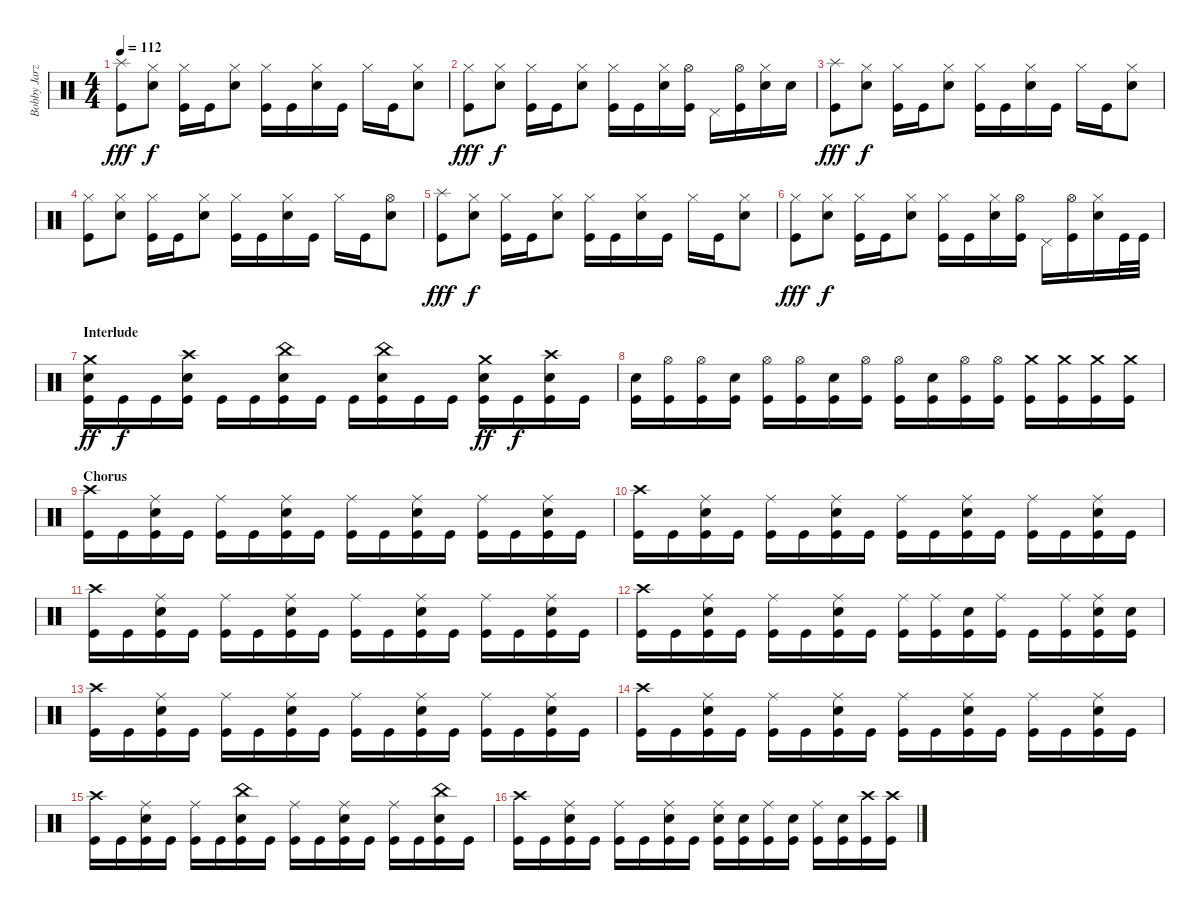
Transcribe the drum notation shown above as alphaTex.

\track ("Bobby Jarzombek" "Bobby Jarz") {instrument percussion}
\staff {score}
\articulation defaults
\ts (4 4)
\tempo 112
\clef neutral
\ks c
("Splash (hit)" "Kick (hit)").8{dy fff} ("Hi-Hat (closed)" "Electric Snare (hit)").8{dy f} ("Hi-Hat (closed)" "Kick (hit)").16 "Kick (hit)".16 ("Hi-Hat (closed)" "Electric Snare (hit)").8 ("Hi-Hat (closed)" "Kick (hit)").16 "Kick (hit)".16 ("Hi-Hat (closed)" "Electric Snare (hit)").16 "Kick (hit)".16 "Hi-Hat (closed)".16 "Kick (hit)".16 ("Hi-Hat (closed)" "Electric Snare (hit)").8 |
("Hi-Hat (closed)" "Kick (hit)").8{dy fff} ("Hi-Hat (closed)" "Electric Snare (hit)").8{dy f} ("Hi-Hat (closed)" "Kick (hit)").16 "Kick (hit)".16 ("Hi-Hat (closed)" "Electric Snare (hit)").8 ("Hi-Hat (closed)" "Kick (hit)").16 "Kick (hit)".16 ("Hi-Hat (closed)" "Electric Snare (hit)").16 ("Hi-Hat (open)" "Kick (hit)").16 "Pedal Hi-Hat (hit)".16 ("Hi-Hat (open)" "Kick (hit)").16 ("Hi-Hat (closed)" "Electric Snare (hit)").16 "Electric Snare (hit)".16 |
("Splash (hit)" "Kick (hit)").8{dy fff} ("Hi-Hat (closed)" "Electric Snare (hit)").8{dy f} ("Hi-Hat (closed)" "Kick (hit)").16 "Kick (hit)".16 ("Hi-Hat (closed)" "Electric Snare (hit)").8 ("Hi-Hat (closed)" "Kick (hit)").16 "Kick (hit)".16 ("Hi-Hat (closed)" "Electric Snare (hit)").16 "Kick (hit)".16 "Hi-Hat (closed)".16 "Kick (hit)".16 ("Hi-Hat (closed)" "Electric Snare (hit)").8 |
("Hi-Hat (closed)" "Kick (hit)").8 ("Hi-Hat (closed)" "Electric Snare (hit)").8 ("Hi-Hat (closed)" "Kick (hit)").16 "Kick (hit)".16 ("Hi-Hat (closed)" "Electric Snare (hit)").8 ("Hi-Hat (closed)" "Kick (hit)").16 "Kick (hit)".16 ("Hi-Hat (closed)" "Electric Snare (hit)").16 "Kick (hit)".16 "Hi-Hat (closed)".16 "Kick (hit)".16 ("Hi-Hat (open)" "Electric Snare (hit)").8 |
("Splash (hit)" "Kick (hit)").8{dy fff} ("Hi-Hat (closed)" "Electric Snare (hit)").8{dy f} ("Hi-Hat (closed)" "Kick (hit)").16 "Kick (hit)".16 ("Hi-Hat (closed)" "Electric Snare (hit)").8 ("Hi-Hat (closed)" "Kick (hit)").16 "Kick (hit)".16 ("Hi-Hat (closed)" "Electric Snare (hit)").16 "Kick (hit)".16 "Hi-Hat (closed)".16 "Kick (hit)".16 ("Hi-Hat (closed)" "Electric Snare (hit)").8 |
("Hi-Hat (closed)" "Kick (hit)").8{dy fff} ("Hi-Hat (closed)" "Electric Snare (hit)").8{dy f} ("Hi-Hat (closed)" "Kick (hit)").16 "Kick (hit)".16 ("Hi-Hat (closed)" "Electric Snare (hit)").8 ("Hi-Hat (closed)" "Kick (hit)").16 "Kick (hit)".16 ("Hi-Hat (closed)" "Electric Snare (hit)").16 ("Hi-Hat (open)" "Kick (hit)").16 "Pedal Hi-Hat (hit)".16 ("Hi-Hat (open)" "Kick (hit)").16 ("Hi-Hat (closed)" "Electric Snare (hit)").16 "Kick (hit)".32 "Kick (hit)".32 |
\section ("" "Interlude")
("Crash medium (hit)" "Electric Snare (hit)" "Kick (hit)").16{dy ff} "Kick (hit)".16{dy f} "Kick (hit)".16 ("Crash high (hit)" "Electric Snare (hit)" "Kick (hit)").16 "Kick (hit)".16 "Kick (hit)".16 ("China (hit)" "Electric Snare (hit)" "Kick (hit)").16 "Kick (hit)".16 "Kick (hit)".16 ("China (hit)" "Electric Snare (hit)" "Kick (hit)").16 "Kick (hit)".16 "Kick (hit)".16 ("Crash medium (hit)" "Electric Snare (hit)" "Kick (hit)").16{dy ff} "Kick (hit)".16{dy f} ("Crash high (hit)" "Electric Snare (hit)" "Kick (hit)").16 "Kick (hit)".16 |
("Electric Snare (hit)" "Kick (hit)").16 ("Hi-Hat (open)" "Kick (hit)").16 ("Hi-Hat (open)" "Kick (hit)").16 ("Electric Snare (hit)" "Kick (hit)").16 ("Hi-Hat (open)" "Kick (hit)").16 ("Hi-Hat (open)" "Kick (hit)").16 ("Electric Snare (hit)" "Kick (hit)").16 ("Hi-Hat (open)" "Kick (hit)").16 ("Hi-Hat (open)" "Kick (hit)").16 ("Electric Snare (hit)" "Kick (hit)").16 ("Hi-Hat (open)" "Kick (hit)").16 ("Hi-Hat (open)" "Kick (hit)").16 ("Crash medium (hit)" "Kick (hit)").16 ("Crash medium (hit)" "Kick (hit)").16 ("Crash medium (hit)" "Kick (hit)").16 ("Crash medium (hit)" "Kick (hit)").16 |
\section ("" "Chorus")
("Crash high (hit)" "Kick (hit)").16 "Kick (hit)".16 ("Ride (middle)" "Electric Snare (hit)" "Kick (hit)").16 "Kick (hit)".16 ("Ride (middle)" "Kick (hit)").16 "Kick (hit)".16 ("Ride (middle)" "Electric Snare (hit)" "Kick (hit)").16 "Kick (hit)".16 ("Ride (middle)" "Kick (hit)").16 "Kick (hit)".16 ("Ride (middle)" "Electric Snare (hit)" "Kick (hit)").16 "Kick (hit)".16 ("Ride (middle)" "Kick (hit)").16 "Kick (hit)".16 ("Ride (middle)" "Electric Snare (hit)" "Kick (hit)").16 "Kick (hit)".16 |
("Crash high (hit)" "Kick (hit)").16 "Kick (hit)".16 ("Ride (middle)" "Electric Snare (hit)" "Kick (hit)").16 "Kick (hit)".16 ("Ride (middle)" "Kick (hit)").16 "Kick (hit)".16 ("Ride (middle)" "Electric Snare (hit)" "Kick (hit)").16 "Kick (hit)".16 ("Ride (middle)" "Kick (hit)").16 "Kick (hit)".16 ("Ride (middle)" "Electric Snare (hit)" "Kick (hit)").16 "Kick (hit)".16 ("Ride (middle)" "Kick (hit)").16 "Kick (hit)".16 ("Ride (middle)" "Electric Snare (hit)" "Kick (hit)").16 "Kick (hit)".16 |
("Crash high (hit)" "Kick (hit)").16 "Kick (hit)".16 ("Ride (middle)" "Electric Snare (hit)" "Kick (hit)").16 "Kick (hit)".16 ("Ride (middle)" "Kick (hit)").16 "Kick (hit)".16 ("Ride (middle)" "Electric Snare (hit)" "Kick (hit)").16 "Kick (hit)".16 ("Ride (middle)" "Kick (hit)").16 "Kick (hit)".16 ("Ride (middle)" "Electric Snare (hit)" "Kick (hit)").16 "Kick (hit)".16 ("Ride (middle)" "Kick (hit)").16 "Kick (hit)".16 ("Ride (middle)" "Electric Snare (hit)" "Kick (hit)").16 "Kick (hit)".16 |
("Crash high (hit)" "Kick (hit)").16 "Kick (hit)".16 ("Ride (middle)" "Electric Snare (hit)" "Kick (hit)").16 "Kick (hit)".16 ("Ride (middle)" "Kick (hit)").16 "Kick (hit)".16 ("Ride (middle)" "Electric Snare (hit)" "Kick (hit)").16 "Kick (hit)".16 ("Ride (middle)" "Kick (hit)").16 ("Ride (middle)" "Kick (hit)").16 ("Electric Snare (hit)" "Kick (hit)").16 ("Ride (middle)" "Kick (hit)").16 "Kick (hit)".16 ("Ride (middle)" "Kick (hit)").16 ("Ride (middle)" "Electric Snare (hit)" "Kick (hit)").16 ("Electric Snare (hit)" "Kick (hit)").16 |
("Crash high (hit)" "Kick (hit)").16 "Kick (hit)".16 ("Ride (middle)" "Electric Snare (hit)" "Kick (hit)").16 "Kick (hit)".16 ("Ride (middle)" "Kick (hit)").16 "Kick (hit)".16 ("Ride (middle)" "Electric Snare (hit)" "Kick (hit)").16 "Kick (hit)".16 ("Ride (middle)" "Kick (hit)").16 "Kick (hit)".16 ("Ride (middle)" "Electric Snare (hit)" "Kick (hit)").16 "Kick (hit)".16 ("Ride (middle)" "Kick (hit)").16 "Kick (hit)".16 ("Ride (middle)" "Electric Snare (hit)" "Kick (hit)").16 "Kick (hit)".16 |
("Crash high (hit)" "Kick (hit)").16 "Kick (hit)".16 ("Ride (middle)" "Electric Snare (hit)" "Kick (hit)").16 "Kick (hit)".16 ("Ride (middle)" "Kick (hit)").16 "Kick (hit)".16 ("Ride (middle)" "Electric Snare (hit)" "Kick (hit)").16 "Kick (hit)".16 ("Ride (middle)" "Kick (hit)").16 "Kick (hit)".16 ("Ride (middle)" "Electric Snare (hit)" "Kick (hit)").16 "Kick (hit)".16 ("Ride (middle)" "Kick (hit)").16 "Kick (hit)".16 ("Ride (middle)" "Electric Snare (hit)" "Kick (hit)").16 "Kick (hit)".16 |
("Crash high (hit)" "Kick (hit)").16 "Kick (hit)".16 ("Ride (middle)" "Electric Snare (hit)" "Kick (hit)").16 "Kick (hit)".16 ("Ride (middle)" "Kick (hit)").16 "Kick (hit)".16 ("China (hit)" "Electric Snare (hit)" "Kick (hit)").16 "Kick (hit)".16 ("Ride (middle)" "Kick (hit)").16 "Kick (hit)".16 ("Ride (middle)" "Electric Snare (hit)" "Kick (hit)").16 "Kick (hit)".16 ("Ride (middle)" "Kick (hit)").16 "Kick (hit)".16 ("China (hit)" "Electric Snare (hit)" "Kick (hit)").16 "Kick (hit)".16 |
("Crash high (hit)" "Kick (hit)").16 "Kick (hit)".16 ("Ride (middle)" "Electric Snare (hit)" "Kick (hit)").16 "Kick (hit)".16 ("Ride (middle)" "Kick (hit)").16 "Kick (hit)".16 ("Ride (middle)" "Electric Snare (hit)" "Kick (hit)").16 "Kick (hit)".16 ("Ride (middle)" "Electric Snare (hit)" "Kick (hit)").16 ("Electric Snare (hit)" "Kick (hit)").16 ("Ride (middle)" "Kick (hit)").16 ("Electric Snare (hit)" "Kick (hit)").16 ("Ride (middle)" "Kick (hit)").16 ("Electric Snare (hit)" "Kick (hit)").16 ("Crash high (hit)" "Kick (hit)").16 ("Crash high (hit)" "Kick (hit)").16
